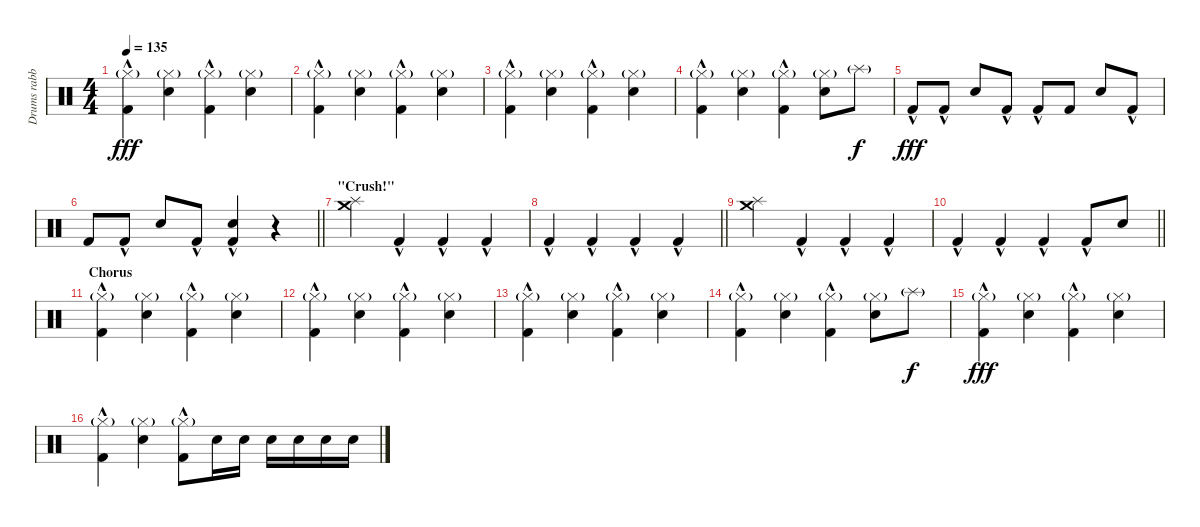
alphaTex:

\track ("Drums rabbit" "Drums rabb") {instrument percussion}
\staff {score}
\articulation defaults
\ts (4 4)
\tempo 135
\clef neutral
\ks c
("Kick (hit) 2"{hac} "Hi-Hat (closed)"{g}).4{dy fff} ("Electric Snare (hit)" "Hi-Hat (closed)"{g}).4 ("Kick (hit) 2"{hac} "Hi-Hat (closed)"{g}).4 ("Electric Snare (hit)" "Hi-Hat (closed)"{g}).4 |
("Kick (hit) 2"{hac} "Hi-Hat (closed)"{g}).4 ("Electric Snare (hit)" "Hi-Hat (closed)"{g}).4 ("Kick (hit) 2"{hac} "Hi-Hat (closed)"{g}).4 ("Electric Snare (hit)" "Hi-Hat (closed)"{g}).4 |
("Kick (hit) 2"{hac} "Hi-Hat (closed)"{g}).4 ("Electric Snare (hit)" "Hi-Hat (closed)"{g}).4 ("Kick (hit) 2"{hac} "Hi-Hat (closed)"{g}).4 ("Electric Snare (hit)" "Hi-Hat (closed)"{g}).4 |
("Kick (hit) 2"{hac} "Hi-Hat (closed)"{g}).4 ("Electric Snare (hit)" "Hi-Hat (closed)"{g}).4 ("Kick (hit) 2"{hac} "Hi-Hat (closed)"{g}).4 ("Electric Snare (hit)" "Hi-Hat (closed)"{g}).8 "Splash (hit)"{g}.8{dy f} |
"Kick (hit) 2"{hac}.8{dy fff} "Kick (hit) 2"{hac}.8 "Electric Snare (hit)".8 "Kick (hit) 2"{hac}.8 "Kick (hit) 2"{hac}.8 "Kick (hit) 2".8 "Electric Snare (hit)".8 "Kick (hit) 2"{hac}.8 |
\barLineRight lightlight "Kick (hit) 2".8 "Kick (hit) 2"{hac}.8 "Electric Snare (hit)".8 "Kick (hit) 2"{hac}.8
("Kick (hit) 2"{hac} "Electric Snare (hit)").4 r.4 |
\section ("" "\"Crush!\"")
("Crash medium (hit)" "Splash (hit)").4 "Kick (hit) 2"{hac}.4 "Kick (hit) 2"{hac}.4 "Kick (hit) 2"{hac}.4 |
\barLineRight lightlight "Kick (hit) 2"{hac}.4 "Kick (hit) 2"{hac}.4 "Kick (hit) 2"{hac}.4 "Kick (hit) 2"{hac}.4
|
("Crash medium (hit)" "Splash (hit)").4 "Kick (hit) 2"{hac}.4 "Kick (hit) 2"{hac}.4 "Kick (hit) 2"{hac}.4 |
\barLineRight lightlight "Kick (hit) 2"{hac}.4 "Kick (hit) 2"{hac}.4 "Kick (hit) 2"{hac}.4 "Kick (hit) 2"{hac}.8 "Electric Snare (hit)".8
|
\section ("" "Chorus")
("Kick (hit) 2"{hac} "Hi-Hat (closed)"{g}).4 ("Electric Snare (hit)" "Hi-Hat (closed)"{g}).4 ("Kick (hit) 2"{hac} "Hi-Hat (closed)"{g}).4 ("Electric Snare (hit)" "Hi-Hat (closed)"{g}).4 |
("Kick (hit) 2"{hac} "Hi-Hat (closed)"{g}).4 ("Electric Snare (hit)" "Hi-Hat (closed)"{g}).4 ("Kick (hit) 2"{hac} "Hi-Hat (closed)"{g}).4 ("Electric Snare (hit)" "Hi-Hat (closed)"{g}).4 |
("Kick (hit) 2"{hac} "Hi-Hat (closed)"{g}).4 ("Electric Snare (hit)" "Hi-Hat (closed)"{g}).4 ("Kick (hit) 2"{hac} "Hi-Hat (closed)"{g}).4 ("Electric Snare (hit)" "Hi-Hat (closed)"{g}).4 |
("Kick (hit) 2"{hac} "Hi-Hat (closed)"{g}).4 ("Electric Snare (hit)" "Hi-Hat (closed)"{g}).4 ("Kick (hit) 2"{hac} "Hi-Hat (closed)"{g}).4 ("Electric Snare (hit)" "Hi-Hat (closed)"{g}).8 "Splash (hit)"{g}.8{dy f} |
("Kick (hit) 2"{hac} "Hi-Hat (closed)"{g}).4{dy fff} ("Electric Snare (hit)" "Hi-Hat (closed)"{g}).4 ("Kick (hit) 2"{hac} "Hi-Hat (closed)"{g}).4 ("Electric Snare (hit)" "Hi-Hat (closed)"{g}).4 |
("Kick (hit) 2"{hac} "Hi-Hat (closed)"{g}).4 ("Electric Snare (hit)" "Hi-Hat (closed)"{g}).4 ("Kick (hit) 2"{hac} "Hi-Hat (closed)"{g}).8 "Electric Snare (hit)".16 "Electric Snare (hit)".16 "Electric Snare (hit)".16 "Electric Snare (hit)".16 "Electric Snare (hit)".16 "Electric Snare (hit)".16
